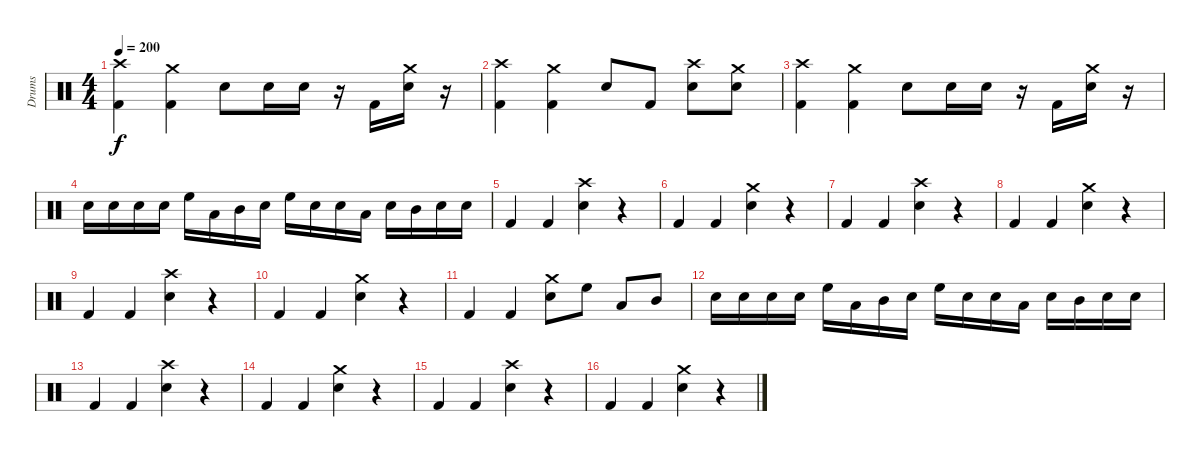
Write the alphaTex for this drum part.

\track ("Drums" "Drums") {instrument percussion}
\staff {score}
\articulation defaults
\ts (4 4)
\tempo 200
\clef neutral
\ks c
("Crash high (hit)" "Kick (hit) 2").4{dy f} ("Crash medium (hit)" "Kick (hit) 2").4 "Electric Snare (hit)".8 "Electric Snare (hit)".16 "Electric Snare (hit)".16 r.16 "Kick (hit) 2".16 ("Electric Snare (hit)" "Crash medium (hit)").16 r.16 |
("Crash high (hit)" "Kick (hit) 2").4 ("Crash medium (hit)" "Kick (hit) 2").4 "Electric Snare (hit)".8 "Kick (hit) 2".8 ("Electric Snare (hit)" "Crash high (hit)").8 ("Electric Snare (hit)" "Crash medium (hit)").8 |
("Crash high (hit)" "Kick (hit) 2").4 ("Crash medium (hit)" "Kick (hit) 2").4 "Electric Snare (hit)".8 "Electric Snare (hit)".16 "Electric Snare (hit)".16 r.16 "Kick (hit) 2".16 ("Electric Snare (hit)" "Crash medium (hit)").16 r.16 |
"Electric Snare (hit)".16 "Electric Snare (hit)".16 "Electric Snare (hit)".16 "Electric Snare (hit)".16 "High Floor Tom (hit)".16 "Low Tom (hit)".16 "Mid Tom (hit)".16 "Electric Snare (hit)".16 "High Floor Tom (hit)".16 "Electric Snare (hit)".16 "Electric Snare (hit)".16 "Low Tom (hit)".16 "Electric Snare (hit)".16 "Mid Tom (hit)".16 "Electric Snare (hit)".16 "Electric Snare (hit)".16 |
"Kick (hit) 2".4 "Kick (hit) 2".4 ("Electric Snare (hit)" "Crash high (hit)").4 r.4 |
"Kick (hit) 2".4 "Kick (hit) 2".4 ("Electric Snare (hit)" "Crash medium (hit)").4 r.4 |
"Kick (hit) 2".4 "Kick (hit) 2".4 ("Electric Snare (hit)" "Crash high (hit)").4 r.4 |
"Kick (hit) 2".4 "Kick (hit) 2".4 ("Electric Snare (hit)" "Crash medium (hit)").4 r.4 |
"Kick (hit) 2".4 "Kick (hit) 2".4 ("Electric Snare (hit)" "Crash high (hit)").4 r.4 |
"Kick (hit) 2".4 "Kick (hit) 2".4 ("Electric Snare (hit)" "Crash medium (hit)").4 r.4 |
"Kick (hit) 2".4 "Kick (hit) 2".4 ("Electric Snare (hit)" "Crash medium (hit)").8 "High Floor Tom (hit)".8 "Low Tom (hit)".8 "Mid Tom (hit)".8 |
"Electric Snare (hit)".16 "Electric Snare (hit)".16 "Electric Snare (hit)".16 "Electric Snare (hit)".16 "High Floor Tom (hit)".16 "Low Tom (hit)".16 "Mid Tom (hit)".16 "Electric Snare (hit)".16 "High Floor Tom (hit)".16 "Electric Snare (hit)".16 "Electric Snare (hit)".16 "Low Tom (hit)".16 "Electric Snare (hit)".16 "Mid Tom (hit)".16 "Electric Snare (hit)".16 "Electric Snare (hit)".16 |
"Kick (hit) 2".4 "Kick (hit) 2".4 ("Electric Snare (hit)" "Crash high (hit)").4 r.4 |
"Kick (hit) 2".4 "Kick (hit) 2".4 ("Electric Snare (hit)" "Crash medium (hit)").4 r.4 |
"Kick (hit) 2".4 "Kick (hit) 2".4 ("Electric Snare (hit)" "Crash high (hit)").4 r.4 |
"Kick (hit) 2".4 "Kick (hit) 2".4 ("Electric Snare (hit)" "Crash medium (hit)").4 r.4
